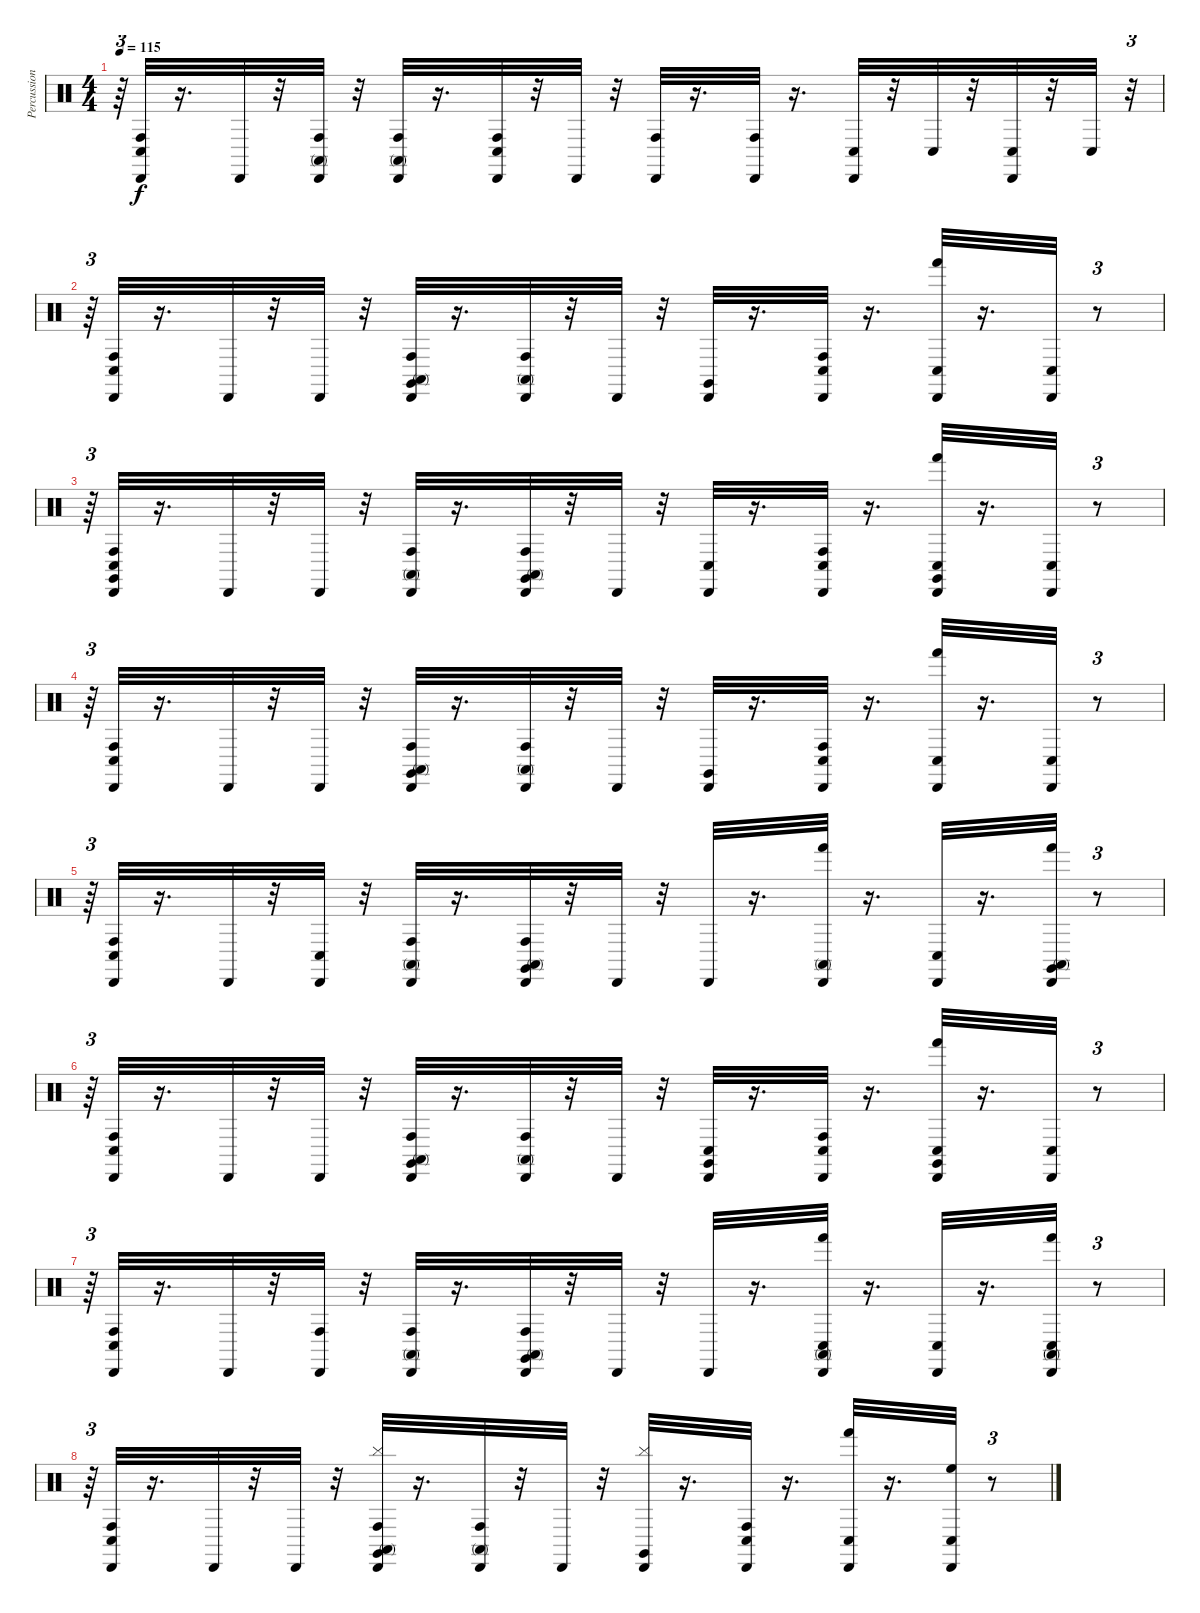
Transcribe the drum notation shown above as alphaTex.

\track ("Percussion" "Percussion") {instrument percussion}
\staff {score}
\articulation defaults
\ts (4 4)
\tempo 115
\clef neutral
\ks c
r.64{tu (3 2) dy f} ("Cabasa (hit)" "Conga low (hit)" "Conga high (hit)").32 r.16{d} "Cabasa (hit)".32 r.32 ("Conga high (hit)" "Cabasa (hit)" "Conga high (mute)").32 r.32 ("Conga high (mute)" "Conga high (hit)" "Cabasa (hit)").32 r.16{d} ("Conga high (hit)" "Cabasa (hit)" "Conga low (hit)").32 r.32 "Cabasa (hit)".32 r.32 ("Conga high (hit)" "Cabasa (hit)").32 r.16{d} ("Conga high (hit)" "Cabasa (hit)").32 r.16{d} ("Cabasa (hit)" "Conga low (hit)").32 r.32 "Conga low (hit)".32 r.32 ("Cabasa (hit)" "Conga low (hit)").32 r.32 "Conga low (hit)".32 r.32{tu (3 2)} |
r.64{tu (3 2)} ("Cabasa (hit)" "Conga high (hit)" "Conga low (hit)").32 r.16{d} "Cabasa (hit)".32 r.32 "Cabasa (hit)".32 r.32 ("Conga high (hit)" "Cabasa (hit)" "Claves (hit)" "Conga high (mute)").32 r.16{d} ("Conga high (hit)" "Cabasa (hit)" "Conga high (mute)").32 r.32 "Cabasa (hit)".32 r.32 ("Cabasa (hit)" "Claves (hit)").32 r.16{d} ("Cabasa (hit)" "Conga high (hit)" "Conga low (hit)").32 r.16{d} ("Hand (hit)" "Cabasa (hit)" "Conga low (hit)").32 r.16{d} ("Conga low (hit)" "Cabasa (hit)").32 r.8{tu (3 2)} |
r.64{tu (3 2)} ("Conga high (hit)" "Conga low (hit)" "Cabasa (hit)" "Claves (hit)").32 r.16{d} "Cabasa (hit)".32 r.32 "Cabasa (hit)".32 r.32 ("Conga high (mute)" "Conga high (hit)" "Cabasa (hit)").32 r.16{d} ("Cabasa (hit)" "Claves (hit)" "Conga high (mute)" "Conga high (hit)").32 r.32 "Cabasa (hit)".32 r.32 ("Cabasa (hit)" "Conga low (hit)").32 r.16{d} ("Conga high (hit)" "Conga low (hit)" "Cabasa (hit)").32 r.16{d} ("Cabasa (hit)" "Claves (hit)" "Conga low (hit)" "Hand (hit)").32 r.16{d} ("Conga low (hit)" "Cabasa (hit)").32 r.8{tu (3 2)} |
r.64{tu (3 2)} ("Conga low (hit)" "Conga high (hit)" "Cabasa (hit)").32 r.16{d} "Cabasa (hit)".32 r.32 "Cabasa (hit)".32 r.32 ("Cabasa (hit)" "Conga high (hit)" "Conga high (mute)" "Claves (hit)").32 r.16{d} ("Cabasa (hit)" "Conga high (mute)" "Conga high (hit)").32 r.32 "Cabasa (hit)".32 r.32 ("Cabasa (hit)" "Claves (hit)").32 r.16{d} ("Cabasa (hit)" "Conga high (hit)" "Conga low (hit)").32 r.16{d} ("Hand (hit)" "Cabasa (hit)" "Conga low (hit)").32 r.16{d} ("Conga low (hit)" "Cabasa (hit)").32 r.8{tu (3 2)} |
r.64{tu (3 2)} ("Cabasa (hit)" "Conga high (hit)" "Conga low (hit)").32 r.16{d} "Cabasa (hit)".32 r.32 ("Cabasa (hit)" "Conga low (hit)").32 r.32 ("Conga high (hit)" "Conga high (mute)" "Cabasa (hit)").32 r.16{d} ("Conga high (hit)" "Claves (hit)" "Cabasa (hit)" "Conga high (mute)").32 r.32 "Cabasa (hit)".32 r.32 "Cabasa (hit)".32 r.16{d} ("Hand (hit)" "Cabasa (hit)" "Conga high (mute)").32 r.16{d} ("Conga low (hit)" "Cabasa (hit)").32 r.16{d} ("Conga high (mute)" "Cabasa (hit)" "Hand (hit)" "Claves (hit)").32 r.8{tu (3 2)} |
r.64{tu (3 2)} ("Conga low (hit)" "Conga high (hit)" "Cabasa (hit)").32 r.16{d} "Cabasa (hit)".32 r.32 "Cabasa (hit)".32 r.32 ("Claves (hit)" "Conga high (hit)" "Cabasa (hit)" "Conga high (mute)").32 r.16{d} ("Conga high (hit)" "Conga high (mute)" "Cabasa (hit)").32 r.32 "Cabasa (hit)".32 r.32 ("Conga low (hit)" "Claves (hit)" "Cabasa (hit)").32 r.16{d} ("Conga low (hit)" "Conga high (hit)" "Cabasa (hit)").32 r.16{d} ("Hand (hit)" "Conga low (hit)" "Cabasa (hit)" "Claves (hit)").32 r.16{d} ("Cabasa (hit)" "Conga low (hit)").32 r.8{tu (3 2)} |
r.64{tu (3 2)} ("Cabasa (hit)" "Conga high (hit)" "Conga low (hit)").32 r.16{d} "Cabasa (hit)".32 r.32 ("Conga high (hit)" "Cabasa (hit)").32 r.32 ("Conga high (mute)" "Cabasa (hit)" "Conga high (hit)").32 r.16{d} ("Conga high (mute)" "Claves (hit)" "Conga high (hit)" "Cabasa (hit)").32 r.32 "Cabasa (hit)".32 r.32 "Cabasa (hit)".32 r.16{d} ("Conga high (mute)" "Cabasa (hit)" "Conga low (hit)" "Hand (hit)").32 r.16{d} ("Cabasa (hit)" "Conga low (hit)").32 r.16{d} ("Hand (hit)" "Cabasa (hit)" "Conga high (mute)" "Conga low (hit)").32 r.8{tu (3 2)} |
r.64{tu (3 2)} ("Cabasa (hit)" "Conga high (hit)" "Conga low (hit)").32 r.16{d} "Cabasa (hit)".32 r.32 "Cabasa (hit)".32 r.32 ("Claves (hit)" "Cymbal (hit)" "Cabasa (hit)" "Conga high (mute)" "Conga high (hit)").32 r.16{d} ("Conga high (hit)" "Cabasa (hit)" "Conga high (mute)").32 r.32 "Cabasa (hit)".32 r.32 ("Cabasa (hit)" "Cymbal (hit)" "Claves (hit)").32 r.16{d} ("Conga high (hit)" "Cabasa (hit)" "Conga low (hit)").32 r.16{d} ("Conga low (hit)" "Cabasa (hit)" "Hand (hit)").32 r.16{d} ("High Floor Tom (hit)" "Cabasa (hit)" "Conga low (hit)").32 r.8{tu (3 2)}
